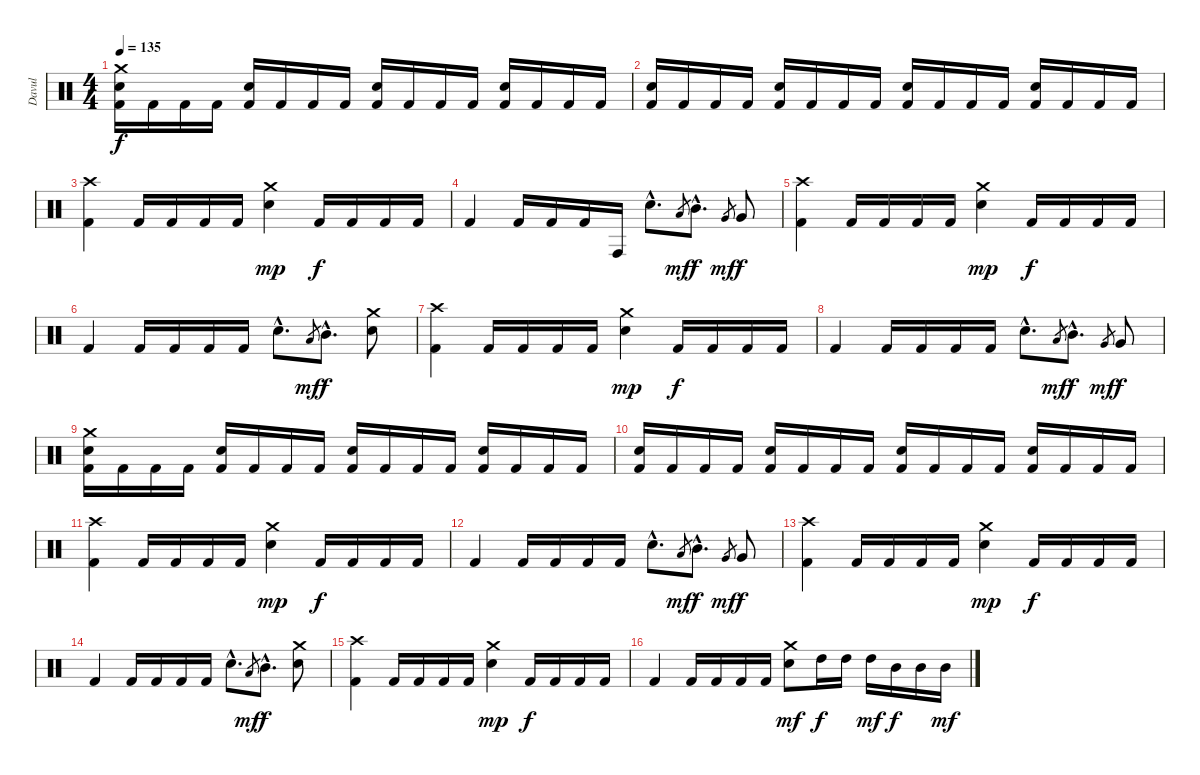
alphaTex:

\track ("Davul" "Davul") {instrument percussion}
\staff {score}
\articulation defaults
\ts (4 4)
\tempo 135
\clef neutral
\ks c
("Crash medium (hit)" "Electric Snare (hit)" "Kick (hit) 2").16{dy f} "Kick (hit) 2".16 "Kick (hit) 2".16 "Kick (hit) 2".16 ("Electric Snare (hit)" "Kick (hit) 2").16 "Kick (hit) 2".16 "Kick (hit) 2".16 "Kick (hit) 2".16 ("Electric Snare (hit)" "Kick (hit) 2").16 "Kick (hit) 2".16 "Kick (hit) 2".16 "Kick (hit) 2".16 ("Electric Snare (hit)" "Kick (hit) 2").16 "Kick (hit) 2".16 "Kick (hit) 2".16 "Kick (hit) 2".16 |
("Electric Snare (hit)" "Kick (hit) 2").16 "Kick (hit) 2".16 "Kick (hit) 2".16 "Kick (hit) 2".16 ("Electric Snare (hit)" "Kick (hit) 2").16 "Kick (hit) 2".16 "Kick (hit) 2".16 "Kick (hit) 2".16 ("Electric Snare (hit)" "Kick (hit) 2").16 "Kick (hit) 2".16 "Kick (hit) 2".16 "Kick (hit) 2".16 ("Electric Snare (hit)" "Kick (hit) 2").16 "Kick (hit) 2".16 "Kick (hit) 2".16 "Kick (hit) 2".16 |
("Crash high (hit)" "Kick (hit) 2").4 "Kick (hit) 2".16 "Kick (hit) 2".16 "Kick (hit) 2".16 "Kick (hit) 2".16 ("Crash medium (hit)" "Electric Snare (hit)").4{dy mp} "Kick (hit) 2".16{dy f} "Kick (hit) 2".16 "Kick (hit) 2".16 "Kick (hit) 2".16 |
"Kick (hit) 2".4 "Kick (hit) 2".16 "Kick (hit) 2".16 "Kick (hit) 2".16 "Conga high (hit)".16 "Electric Snare (hit)"{hac}.8{d} "Low Tom (hit)".8{gr dy mf} "Mid Tom (hit)"{hac}.8{d dy f} "Very Low Tom (hit)".8{gr dy mf} "Very Low Tom (hit)".8{dy f} |
("Crash high (hit)" "Kick (hit) 2").4 "Kick (hit) 2".16 "Kick (hit) 2".16 "Kick (hit) 2".16 "Kick (hit) 2".16 ("Crash medium (hit)" "Electric Snare (hit)").4{dy mp} "Kick (hit) 2".16{dy f} "Kick (hit) 2".16 "Kick (hit) 2".16 "Kick (hit) 2".16 |
"Kick (hit) 2".4 "Kick (hit) 2".16 "Kick (hit) 2".16 "Kick (hit) 2".16 "Kick (hit) 2".16 "Electric Snare (hit)"{hac}.8{d} "Low Tom (hit)".8{gr dy mf} "Mid Tom (hit)"{hac}.8{d dy f} ("Crash medium (hit)" "Electric Snare (hit)").8 |
("Crash high (hit)" "Kick (hit) 2").4 "Kick (hit) 2".16 "Kick (hit) 2".16 "Kick (hit) 2".16 "Kick (hit) 2".16 ("Crash medium (hit)" "Electric Snare (hit)").4{dy mp} "Kick (hit) 2".16{dy f} "Kick (hit) 2".16 "Kick (hit) 2".16 "Kick (hit) 2".16 |
"Kick (hit) 2".4 "Kick (hit) 2".16 "Kick (hit) 2".16 "Kick (hit) 2".16 "Kick (hit) 2".16 "Electric Snare (hit)"{hac}.8{d} "Low Tom (hit)".8{gr dy mf} "Mid Tom (hit)"{hac}.8{d dy f} "Very Low Tom (hit)".8{gr dy mf} "Very Low Tom (hit)".8{dy f} |
("Crash medium (hit)" "Electric Snare (hit)" "Kick (hit) 2").16 "Kick (hit) 2".16 "Kick (hit) 2".16 "Kick (hit) 2".16 ("Electric Snare (hit)" "Kick (hit) 2").16 "Kick (hit) 2".16 "Kick (hit) 2".16 "Kick (hit) 2".16 ("Electric Snare (hit)" "Kick (hit) 2").16 "Kick (hit) 2".16 "Kick (hit) 2".16 "Kick (hit) 2".16 ("Electric Snare (hit)" "Kick (hit) 2").16 "Kick (hit) 2".16 "Kick (hit) 2".16 "Kick (hit) 2".16 |
("Electric Snare (hit)" "Kick (hit) 2").16 "Kick (hit) 2".16 "Kick (hit) 2".16 "Kick (hit) 2".16 ("Electric Snare (hit)" "Kick (hit) 2").16 "Kick (hit) 2".16 "Kick (hit) 2".16 "Kick (hit) 2".16 ("Electric Snare (hit)" "Kick (hit) 2").16 "Kick (hit) 2".16 "Kick (hit) 2".16 "Kick (hit) 2".16 ("Electric Snare (hit)" "Kick (hit) 2").16 "Kick (hit) 2".16 "Kick (hit) 2".16 "Kick (hit) 2".16 |
("Crash high (hit)" "Kick (hit) 2").4 "Kick (hit) 2".16 "Kick (hit) 2".16 "Kick (hit) 2".16 "Kick (hit) 2".16 ("Crash medium (hit)" "Electric Snare (hit)").4{dy mp} "Kick (hit) 2".16{dy f} "Kick (hit) 2".16 "Kick (hit) 2".16 "Kick (hit) 2".16 |
"Kick (hit) 2".4 "Kick (hit) 2".16 "Kick (hit) 2".16 "Kick (hit) 2".16 "Kick (hit) 2".16 "Electric Snare (hit)"{hac}.8{d} "Low Tom (hit)".8{gr dy mf} "Mid Tom (hit)"{hac}.8{d dy f} "Very Low Tom (hit)".8{gr dy mf} "Very Low Tom (hit)".8{dy f} |
("Crash high (hit)" "Kick (hit) 2").4 "Kick (hit) 2".16 "Kick (hit) 2".16 "Kick (hit) 2".16 "Kick (hit) 2".16 ("Crash medium (hit)" "Electric Snare (hit)").4{dy mp} "Kick (hit) 2".16{dy f} "Kick (hit) 2".16 "Kick (hit) 2".16 "Kick (hit) 2".16 |
"Kick (hit) 2".4 "Kick (hit) 2".16 "Kick (hit) 2".16 "Kick (hit) 2".16 "Kick (hit) 2".16 "Electric Snare (hit)"{hac}.8{d} "Low Tom (hit)".8{gr dy mf} "Mid Tom (hit)"{hac}.8{d dy f} ("Crash medium (hit)" "Electric Snare (hit)").8 |
("Crash high (hit)" "Kick (hit) 2").4 "Kick (hit) 2".16 "Kick (hit) 2".16 "Kick (hit) 2".16 "Kick (hit) 2".16 ("Crash medium (hit)" "Electric Snare (hit)").4{dy mp} "Kick (hit) 2".16{dy f} "Kick (hit) 2".16 "Kick (hit) 2".16 "Kick (hit) 2".16 |
"Kick (hit) 2".4 "Kick (hit) 2".16 "Kick (hit) 2".16 "Kick (hit) 2".16 "Kick (hit) 2".16 ("Crash medium (hit)" "Electric Snare (hit)").8{dy mf} "High Tom (hit)".16{dy f} "High Tom (hit)".16 "High Tom (hit)".16{dy mf} "Mid Tom (hit)".16{dy f} "Mid Tom (hit)".16 "Mid Tom (hit)".16{dy mf}
